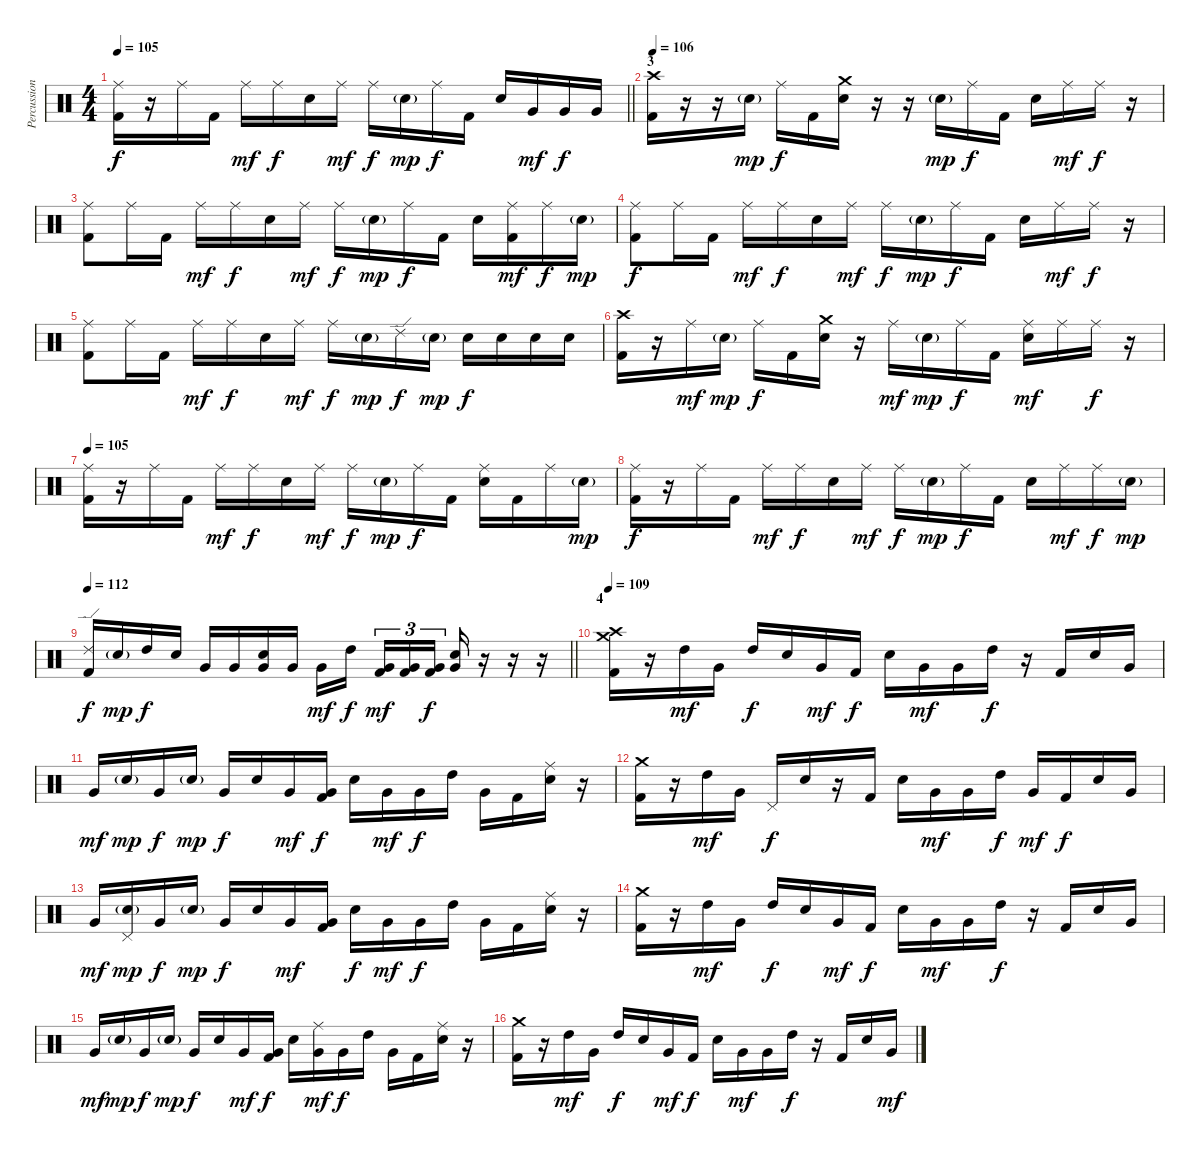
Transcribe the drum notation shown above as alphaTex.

\track ("Percussion" "Percussion") {instrument percussion}
\staff {score}
\articulation defaults
\ts (4 4)
\tempo 105
\clef neutral
\barLineRight lightlight
\ks c
("Ride (middle)" "Kick (hit) 2").16{dy f} r.16 "Ride (middle)".16 "Kick (hit) 2".16 "Ride (middle)".16{dy mf} "Ride (middle)".16{dy f} "Snare (hit) 2".16 "Ride (middle)".16{dy mf} "Ride (middle)".16{dy f} "Snare (hit) 2"{g}.16{dy mp} "Ride (middle)".16{dy f} "Kick (hit) 2".16 "Snare (hit) 2".16 "Very Low Tom (hit)".16{dy mf} "Very Low Tom (hit)".16{dy f} "Very Low Tom (hit)".16 |
\section ("" "3")
\tempo 106
("Crash high (hit)" "Kick (hit) 2").16 r.16 r.16 "Snare (hit) 2"{g}.16{dy mp} "Ride (middle)".16{dy f} "Kick (hit) 2".16 ("Crash medium (hit)" "Snare (hit) 2").16 r.16 r.16 "Snare (hit) 2"{g}.16{dy mp} "Ride (middle)".16{dy f} "Kick (hit) 2".16 "Snare (hit) 2".16 "Ride (middle)".16{dy mf} "Ride (middle)".16{dy f} r.16 |
("Ride (middle)" "Kick (hit) 2").8 "Ride (middle)".16 "Kick (hit) 2".16 "Ride (middle)".16{dy mf} "Ride (middle)".16{dy f} "Snare (hit) 2".16 "Ride (middle)".16{dy mf} "Ride (middle)".16{dy f} "Snare (hit) 2"{g}.16{dy mp} "Ride (middle)".16{dy f} "Kick (hit) 2".16 "Snare (hit) 2".16 ("Ride (middle)" "Kick (hit) 2").16{dy mf} "Ride (middle)".16{dy f} "Snare (hit) 2"{g}.16{dy mp} |
("Ride (middle)" "Kick (hit) 2").8{dy f} "Ride (middle)".16 "Kick (hit) 2".16 "Ride (middle)".16{dy mf} "Ride (middle)".16{dy f} "Snare (hit) 2".16 "Ride (middle)".16{dy mf} "Ride (middle)".16{dy f} "Snare (hit) 2"{g}.16{dy mp} "Ride (middle)".16{dy f} "Kick (hit) 2".16 "Snare (hit) 2".16 "Ride (middle)".16{dy mf} "Ride (middle)".16{dy f} r.16 |
("Ride (middle)" "Kick (hit) 2").8 "Ride (middle)".16 "Kick (hit) 2".16 "Ride (middle)".16{dy mf} "Ride (middle)".16{dy f} "Snare (hit) 2".16 "Ride (middle)".16{dy mf} "Ride (middle)".16{dy f} "Snare (hit) 2"{g}.16{dy mp} "Ride (edge) 2".16{dy f} "Snare (hit) 2"{g}.16{dy mp} "Snare (hit) 2".16{dy f} "Snare (hit) 2".16 "Snare (hit) 2".16 "Snare (hit) 2".16 |
("Crash high (hit)" "Kick (hit) 2").16 r.16 "Ride (middle)".16{dy mf} "Snare (hit) 2"{g}.16{dy mp} "Ride (middle)".16{dy f} "Kick (hit) 2".16 ("Crash medium (hit)" "Snare (hit) 2").16 r.16 "Ride (middle)".16{dy mf} "Snare (hit) 2"{g}.16{dy mp} "Ride (middle)".16{dy f} "Kick (hit) 2".16 ("Ride (middle)" "Snare (hit) 2").16{dy mf} "Ride (middle)".16 "Ride (middle)".16{dy f} r.16 |
\tempo 105
("Ride (middle)" "Kick (hit) 2").16 r.16 "Ride (middle)".16 "Kick (hit) 2".16 "Ride (middle)".16{dy mf} "Ride (middle)".16{dy f} "Snare (hit) 2".16 "Ride (middle)".16{dy mf} "Ride (middle)".16{dy f} "Snare (hit) 2"{g}.16{dy mp} "Ride (middle)".16{dy f} "Kick (hit) 2".16 ("Ride (middle)" "Snare (hit) 2").16 "Kick (hit) 2".16 "Ride (middle)".16 "Snare (hit) 2"{g}.16{dy mp} |
("Ride (middle)" "Kick (hit) 2").16{dy f} r.16 "Ride (middle)".16 "Kick (hit) 2".16 "Ride (middle)".16{dy mf} "Ride (middle)".16{dy f} "Snare (hit) 2".16 "Ride (middle)".16{dy mf} "Ride (middle)".16{dy f} "Snare (hit) 2"{g}.16{dy mp} "Ride (middle)".16{dy f} "Kick (hit) 2".16 "Snare (hit) 2".16 "Ride (middle)".16{dy mf} "Ride (middle)".16{dy f} "Snare (hit) 2"{g}.16{dy mp} |
\tempo 112
\barLineRight lightlight
("Ride (edge) 2" "Kick (hit) 2").16{dy f} "Snare (hit) 2"{g}.16{dy mp} "High Tom (hit)".16{dy f} "Snare (hit) 2".16 "Very Low Tom (hit)".16 "Very Low Tom (hit)".16 ("Snare (hit) 2" "Very Low Tom (hit)").16 "Very Low Tom (hit)".16 "Very Low Tom (hit)".16{dy mf} "High Tom (hit)".16{dy f beam splitsecondary} ("Very Low Tom (hit)" "Kick (hit) 2").16{tu (3 2) dy mf} ("Very Low Tom (hit)" "Kick (hit) 2").16{tu (3 2)} ("Very Low Tom (hit)" "Kick (hit) 2").16{tu (3 2) dy f} ("Snare (hit) 2" "Very Low Tom (hit)").16{bu 60} r.16 r.16 r.16 |
\section ("" "4")
\tempo 109
("Crash high (hit)" "Crash medium (hit)" "Kick (hit) 2").16 r.16 "High Tom (hit)".16{dy mf} "Very Low Tom (hit)".16 "High Tom (hit)".16{dy f} "Snare (hit) 2".16 "Very Low Tom (hit)".16{dy mf} "Kick (hit) 2".16{dy f} "Snare (hit) 2".16 "Very Low Tom (hit)".16{dy mf} "Very Low Tom (hit)".16 "High Tom (hit)".16{dy f} r.16 "Kick (hit) 2".16 "Snare (hit) 2".16 "Very Low Tom (hit)".16 |
"Very Low Tom (hit)".16{dy mf} "Snare (hit) 2"{g}.16{dy mp} "Very Low Tom (hit)".16{dy f} "Snare (hit) 2"{g}.16{dy mp} "Very Low Tom (hit)".16{dy f} "Snare (hit) 2".16 "Very Low Tom (hit)".16{dy mf} ("Very Low Tom (hit)" "Kick (hit) 2").16{dy f} "Snare (hit) 2".16 "Very Low Tom (hit)".16{dy mf} "Very Low Tom (hit)".16{dy f} "High Tom (hit)".16 "Very Low Tom (hit)".16 "Kick (hit) 2".16 ("Ride (middle)" "Snare (hit) 2").16 r.16 |
("Crash medium (hit)" "Kick (hit) 2").16 r.16 "High Tom (hit)".16{dy mf} "Very Low Tom (hit)".16 "Pedal Hi-Hat (hit)".16{dy f} "Snare (hit) 2".16 r.16 "Kick (hit) 2".16 "Snare (hit) 2".16 "Very Low Tom (hit)".16{dy mf} "Very Low Tom (hit)".16 "High Tom (hit)".16{dy f} "Very Low Tom (hit)".16{dy mf} "Kick (hit) 2".16{dy f} "Snare (hit) 2".16 "Very Low Tom (hit)".16 |
"Very Low Tom (hit)".16{dy mf} ("Pedal Hi-Hat (hit)" "Snare (hit) 2"{g}).16{dy mp} "Very Low Tom (hit)".16{dy f} "Snare (hit) 2"{g}.16{dy mp} "Very Low Tom (hit)".16{dy f} "Snare (hit) 2".16 "Very Low Tom (hit)".16{dy mf} ("Very Low Tom (hit)" "Kick (hit) 2").16 "Snare (hit) 2".16{dy f} "Very Low Tom (hit)".16{dy mf} "Very Low Tom (hit)".16{dy f} "High Tom (hit)".16 "Very Low Tom (hit)".16 "Kick (hit) 2".16 ("Ride (middle)" "Snare (hit) 2").16 r.16 |
("Crash medium (hit)" "Kick (hit) 2").16 r.16 "High Tom (hit)".16{dy mf} "Very Low Tom (hit)".16 "High Tom (hit)".16{dy f} "Snare (hit) 2".16 "Very Low Tom (hit)".16{dy mf} "Kick (hit) 2".16{dy f} "Snare (hit) 2".16 "Very Low Tom (hit)".16{dy mf} "Very Low Tom (hit)".16 "High Tom (hit)".16{dy f} r.16 "Kick (hit) 2".16 "Snare (hit) 2".16 "Very Low Tom (hit)".16 |
"Very Low Tom (hit)".16{dy mf} "Snare (hit) 2"{g}.16{dy mp} "Very Low Tom (hit)".16{dy f} "Snare (hit) 2"{g}.16{dy mp} "Very Low Tom (hit)".16{dy f} "Snare (hit) 2".16 "Very Low Tom (hit)".16{dy mf} ("Very Low Tom (hit)" "Kick (hit) 2").16{dy f} "Snare (hit) 2".16 ("Ride (middle)" "Very Low Tom (hit)").16{dy mf} "Very Low Tom (hit)".16{dy f} "High Tom (hit)".16 "Very Low Tom (hit)".16 "Kick (hit) 2".16 ("Ride (middle)" "Snare (hit) 2").16 r.16 |
("Crash medium (hit)" "Kick (hit) 2").16 r.16 "High Tom (hit)".16{dy mf} "Very Low Tom (hit)".16 "High Tom (hit)".16{dy f} "Snare (hit) 2".16 "Very Low Tom (hit)".16{dy mf} "Kick (hit) 2".16{dy f} "Snare (hit) 2".16 "Very Low Tom (hit)".16{dy mf} "Very Low Tom (hit)".16 "High Tom (hit)".16{dy f} r.16 "Kick (hit) 2".16 "Snare (hit) 2".16 "Very Low Tom (hit)".16{dy mf}
